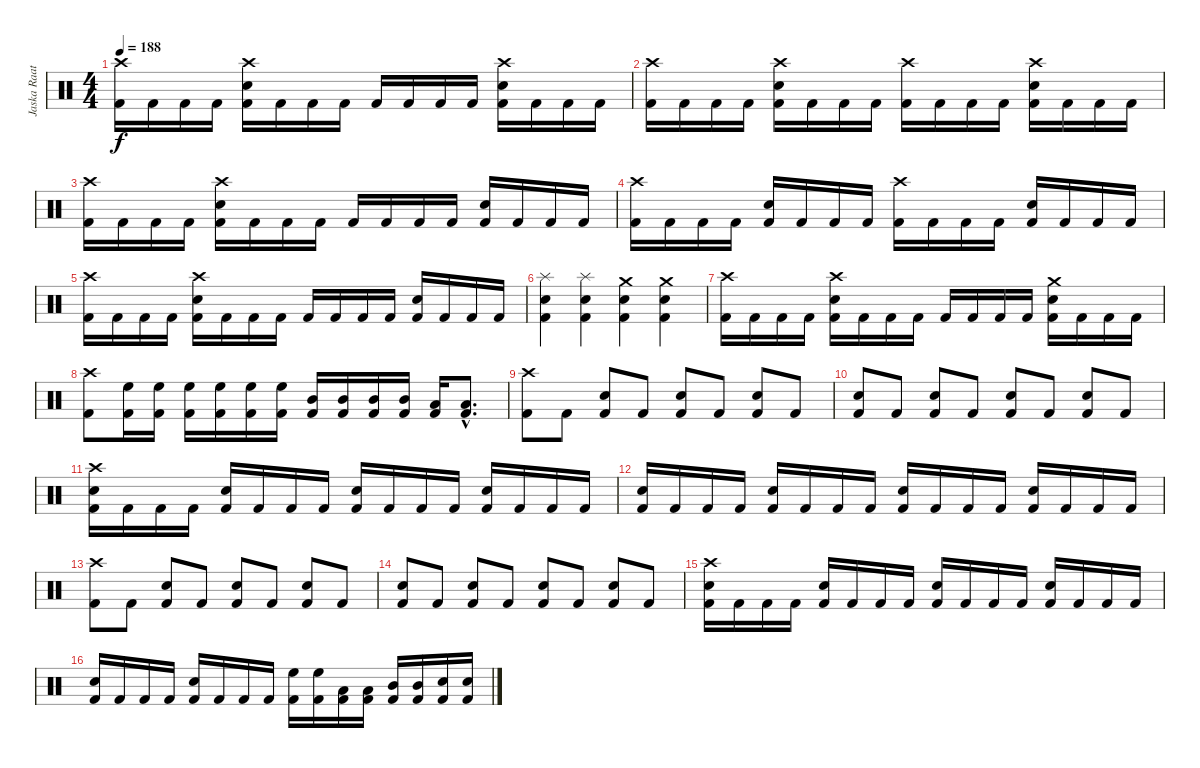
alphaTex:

\track ("Jaska Raatikainen" "Jaska Raat") {instrument percussion}
\staff {score}
\articulation defaults
\ts (4 4)
\tempo 188
\clef neutral
\ks c
("Crash high (hit)" "Kick (hit) 2").16{dy f} "Kick (hit) 2".16 "Kick (hit) 2".16 "Kick (hit) 2".16 ("Crash high (hit)" "Electric Snare (hit)" "Kick (hit) 2").16 "Kick (hit) 2".16 "Kick (hit) 2".16 "Kick (hit) 2".16 "Kick (hit) 2".16 "Kick (hit) 2".16 "Kick (hit) 2".16 "Kick (hit) 2".16 ("Crash high (hit)" "Electric Snare (hit)" "Kick (hit) 2").16 "Kick (hit) 2".16 "Kick (hit) 2".16 "Kick (hit) 2".16 |
("Crash high (hit)" "Kick (hit) 2").16 "Kick (hit) 2".16 "Kick (hit) 2".16 "Kick (hit) 2".16 ("Crash high (hit)" "Electric Snare (hit)" "Kick (hit) 2").16 "Kick (hit) 2".16 "Kick (hit) 2".16 "Kick (hit) 2".16 ("Crash high (hit)" "Kick (hit) 2").16 "Kick (hit) 2".16 "Kick (hit) 2".16 "Kick (hit) 2".16 ("Crash high (hit)" "Electric Snare (hit)" "Kick (hit) 2").16 "Kick (hit) 2".16 "Kick (hit) 2".16 "Kick (hit) 2".16 |
("Crash high (hit)" "Kick (hit) 2").16 "Kick (hit) 2".16 "Kick (hit) 2".16 "Kick (hit) 2".16 ("Crash high (hit)" "Electric Snare (hit)" "Kick (hit) 2").16 "Kick (hit) 2".16 "Kick (hit) 2".16 "Kick (hit) 2".16 "Kick (hit) 2".16 "Kick (hit) 2".16 "Kick (hit) 2".16 "Kick (hit) 2".16 ("Electric Snare (hit)" "Kick (hit) 2").16 "Kick (hit) 2".16 "Kick (hit) 2".16 "Kick (hit) 2".16 |
("Crash high (hit)" "Kick (hit) 2").16 "Kick (hit) 2".16 "Kick (hit) 2".16 "Kick (hit) 2".16 ("Electric Snare (hit)" "Kick (hit) 2").16 "Kick (hit) 2".16 "Kick (hit) 2".16 "Kick (hit) 2".16 ("Crash high (hit)" "Kick (hit) 2").16 "Kick (hit) 2".16 "Kick (hit) 2".16 "Kick (hit) 2".16 ("Electric Snare (hit)" "Kick (hit) 2").16 "Kick (hit) 2".16 "Kick (hit) 2".16 "Kick (hit) 2".16 |
("Crash high (hit)" "Kick (hit) 2").16 "Kick (hit) 2".16 "Kick (hit) 2".16 "Kick (hit) 2".16 ("Crash high (hit)" "Electric Snare (hit)" "Kick (hit) 2").16 "Kick (hit) 2".16 "Kick (hit) 2".16 "Kick (hit) 2".16 "Kick (hit) 2".16 "Kick (hit) 2".16 "Kick (hit) 2".16 "Kick (hit) 2".16 ("Electric Snare (hit)" "Kick (hit) 2").16 "Kick (hit) 2".16 "Kick (hit) 2".16 "Kick (hit) 2".16 |
("Splash (hit)" "Electric Snare (hit)" "Kick (hit) 2").4 ("Splash (hit)" "Electric Snare (hit)" "Kick (hit) 2").4 ("Crash medium (hit)" "Electric Snare (hit)" "Kick (hit) 2").4 ("Crash medium (hit)" "Electric Snare (hit)" "Kick (hit) 2").4 |
("Crash high (hit)" "Kick (hit) 2").16 "Kick (hit) 2".16 "Kick (hit) 2".16 "Kick (hit) 2".16 ("Crash high (hit)" "Electric Snare (hit)" "Kick (hit) 2").16 "Kick (hit) 2".16 "Kick (hit) 2".16 "Kick (hit) 2".16 "Kick (hit) 2".16 "Kick (hit) 2".16 "Kick (hit) 2".16 "Kick (hit) 2".16 ("Crash medium (hit)" "Electric Snare (hit)" "Kick (hit) 2").16 "Kick (hit) 2".16 "Kick (hit) 2".16 "Kick (hit) 2".16 |
("Crash high (hit)" "Kick (hit) 2").8 ("High Floor Tom (hit)" "Kick (hit) 2").16 ("High Floor Tom (hit)" "Kick (hit) 2").16 ("High Floor Tom (hit)" "Kick (hit) 2").16 ("High Floor Tom (hit)" "Kick (hit) 2").16 ("High Floor Tom (hit)" "Kick (hit) 2").16 ("High Floor Tom (hit)" "Kick (hit) 2").16 ("Mid Tom (hit)" "Kick (hit) 2").16 ("Mid Tom (hit)" "Kick (hit) 2").16 ("Mid Tom (hit)" "Kick (hit) 2").16 ("Mid Tom (hit)" "Kick (hit) 2").16 ("Low Tom (hit)" "Kick (hit) 2").16 ("Low Tom (hit)"{hac} "Kick (hit) 2"{hac}).8{d} |
("Crash high (hit)" "Kick (hit) 2").8 "Kick (hit) 2".8 ("Electric Snare (hit)" "Kick (hit) 2").8 "Kick (hit) 2".8 ("Electric Snare (hit)" "Kick (hit) 2").8 "Kick (hit) 2".8 ("Electric Snare (hit)" "Kick (hit) 2").8 "Kick (hit) 2".8 |
("Electric Snare (hit)" "Kick (hit) 2").8 "Kick (hit) 2".8 ("Electric Snare (hit)" "Kick (hit) 2").8 "Kick (hit) 2".8 ("Electric Snare (hit)" "Kick (hit) 2").8 "Kick (hit) 2".8 ("Electric Snare (hit)" "Kick (hit) 2").8 "Kick (hit) 2".8 |
("Crash high (hit)" "Electric Snare (hit)" "Kick (hit) 2").16 "Kick (hit) 2".16 "Kick (hit) 2".16 "Kick (hit) 2".16 ("Electric Snare (hit)" "Kick (hit) 2").16 "Kick (hit) 2".16 "Kick (hit) 2".16 "Kick (hit) 2".16 ("Electric Snare (hit)" "Kick (hit) 2").16 "Kick (hit) 2".16 "Kick (hit) 2".16 "Kick (hit) 2".16 ("Electric Snare (hit)" "Kick (hit) 2").16 "Kick (hit) 2".16 "Kick (hit) 2".16 "Kick (hit) 2".16 |
("Electric Snare (hit)" "Kick (hit) 2").16 "Kick (hit) 2".16 "Kick (hit) 2".16 "Kick (hit) 2".16 ("Electric Snare (hit)" "Kick (hit) 2").16 "Kick (hit) 2".16 "Kick (hit) 2".16 "Kick (hit) 2".16 ("Electric Snare (hit)" "Kick (hit) 2").16 "Kick (hit) 2".16 "Kick (hit) 2".16 "Kick (hit) 2".16 ("Electric Snare (hit)" "Kick (hit) 2").16 "Kick (hit) 2".16 "Kick (hit) 2".16 "Kick (hit) 2".16 |
("Crash high (hit)" "Kick (hit) 2").8 "Kick (hit) 2".8 ("Electric Snare (hit)" "Kick (hit) 2").8 "Kick (hit) 2".8 ("Electric Snare (hit)" "Kick (hit) 2").8 "Kick (hit) 2".8 ("Electric Snare (hit)" "Kick (hit) 2").8 "Kick (hit) 2".8 |
("Electric Snare (hit)" "Kick (hit) 2").8 "Kick (hit) 2".8 ("Electric Snare (hit)" "Kick (hit) 2").8 "Kick (hit) 2".8 ("Electric Snare (hit)" "Kick (hit) 2").8 "Kick (hit) 2".8 ("Electric Snare (hit)" "Kick (hit) 2").8 "Kick (hit) 2".8 |
("Crash high (hit)" "Electric Snare (hit)" "Kick (hit) 2").16 "Kick (hit) 2".16 "Kick (hit) 2".16 "Kick (hit) 2".16 ("Electric Snare (hit)" "Kick (hit) 2").16 "Kick (hit) 2".16 "Kick (hit) 2".16 "Kick (hit) 2".16 ("Electric Snare (hit)" "Kick (hit) 2").16 "Kick (hit) 2".16 "Kick (hit) 2".16 "Kick (hit) 2".16 ("Electric Snare (hit)" "Kick (hit) 2").16 "Kick (hit) 2".16 "Kick (hit) 2".16 "Kick (hit) 2".16 |
("Electric Snare (hit)" "Kick (hit) 2").16 "Kick (hit) 2".16 "Kick (hit) 2".16 "Kick (hit) 2".16 ("Electric Snare (hit)" "Kick (hit) 2").16 "Kick (hit) 2".16 "Kick (hit) 2".16 "Kick (hit) 2".16 ("High Floor Tom (hit)" "Kick (hit) 2").16 ("High Floor Tom (hit)" "Kick (hit) 2").16 ("Low Tom (hit)" "Kick (hit) 2").16 ("Low Tom (hit)" "Kick (hit) 2").16 ("Mid Tom (hit)" "Kick (hit) 2").16 ("Mid Tom (hit)" "Kick (hit) 2").16 ("Electric Snare (hit)" "Kick (hit) 2").16 ("Electric Snare (hit)" "Kick (hit) 2").16
